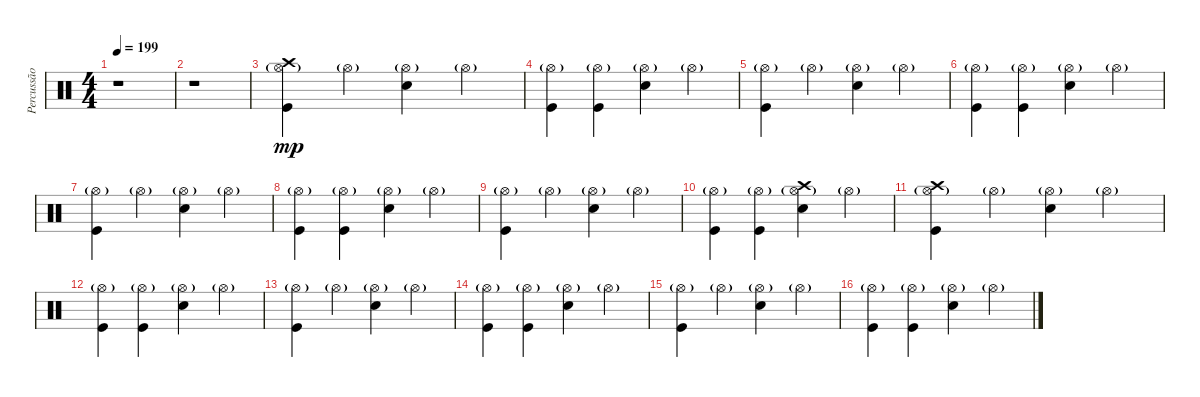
\track ("Percussão" "Percussão") {instrument percussion}
\staff {score}
\articulation defaults
\ts (4 4)
\tempo 199
\clef neutral
\ks c
r.1{dy f} |
r.1 |
("Hi-Hat (open)"{g} "Crash high (hit)" "Kick (hit)").4{dy mp} "Hi-Hat (open)"{g}.4 ("Hi-Hat (open)"{g} "Electric Snare (hit)").4 "Hi-Hat (open)"{g}.4 |
("Hi-Hat (open)"{g} "Kick (hit)").4 ("Hi-Hat (open)"{g} "Kick (hit)").4 ("Hi-Hat (open)"{g} "Electric Snare (hit)").4 "Hi-Hat (open)"{g}.4 |
("Hi-Hat (open)"{g} "Kick (hit)").4 "Hi-Hat (open)"{g}.4 ("Hi-Hat (open)"{g} "Electric Snare (hit)").4 "Hi-Hat (open)"{g}.4 |
("Hi-Hat (open)"{g} "Kick (hit)").4 ("Hi-Hat (open)"{g} "Kick (hit)").4 ("Hi-Hat (open)"{g} "Electric Snare (hit)").4 "Hi-Hat (open)"{g}.4 |
("Hi-Hat (open)"{g} "Kick (hit)").4 "Hi-Hat (open)"{g}.4 ("Hi-Hat (open)"{g} "Electric Snare (hit)").4 "Hi-Hat (open)"{g}.4 |
("Hi-Hat (open)"{g} "Kick (hit)").4 ("Hi-Hat (open)"{g} "Kick (hit)").4 ("Hi-Hat (open)"{g} "Electric Snare (hit)").4 "Hi-Hat (open)"{g}.4 |
("Hi-Hat (open)"{g} "Kick (hit)").4 "Hi-Hat (open)"{g}.4 ("Hi-Hat (open)"{g} "Electric Snare (hit)").4 "Hi-Hat (open)"{g}.4 |
("Hi-Hat (open)"{g} "Kick (hit)").4 ("Hi-Hat (open)"{g} "Kick (hit)").4 ("Hi-Hat (open)"{g} "Crash high (hit)" "Electric Snare (hit)").4 "Hi-Hat (open)"{g}.4 |
("Hi-Hat (open)"{g} "Crash high (hit)" "Kick (hit)").4 "Hi-Hat (open)"{g}.4 ("Hi-Hat (open)"{g} "Electric Snare (hit)").4 "Hi-Hat (open)"{g}.4 |
("Hi-Hat (open)"{g} "Kick (hit)").4 ("Hi-Hat (open)"{g} "Kick (hit)").4 ("Hi-Hat (open)"{g} "Electric Snare (hit)").4 "Hi-Hat (open)"{g}.4 |
("Hi-Hat (open)"{g} "Kick (hit)").4 "Hi-Hat (open)"{g}.4 ("Hi-Hat (open)"{g} "Electric Snare (hit)").4 "Hi-Hat (open)"{g}.4 |
("Hi-Hat (open)"{g} "Kick (hit)").4 ("Hi-Hat (open)"{g} "Kick (hit)").4 ("Hi-Hat (open)"{g} "Electric Snare (hit)").4 "Hi-Hat (open)"{g}.4 |
("Hi-Hat (open)"{g} "Kick (hit)").4 "Hi-Hat (open)"{g}.4 ("Hi-Hat (open)"{g} "Electric Snare (hit)").4 "Hi-Hat (open)"{g}.4 |
("Hi-Hat (open)"{g} "Kick (hit)").4 ("Hi-Hat (open)"{g} "Kick (hit)").4 ("Hi-Hat (open)"{g} "Electric Snare (hit)").4 "Hi-Hat (open)"{g}.4
